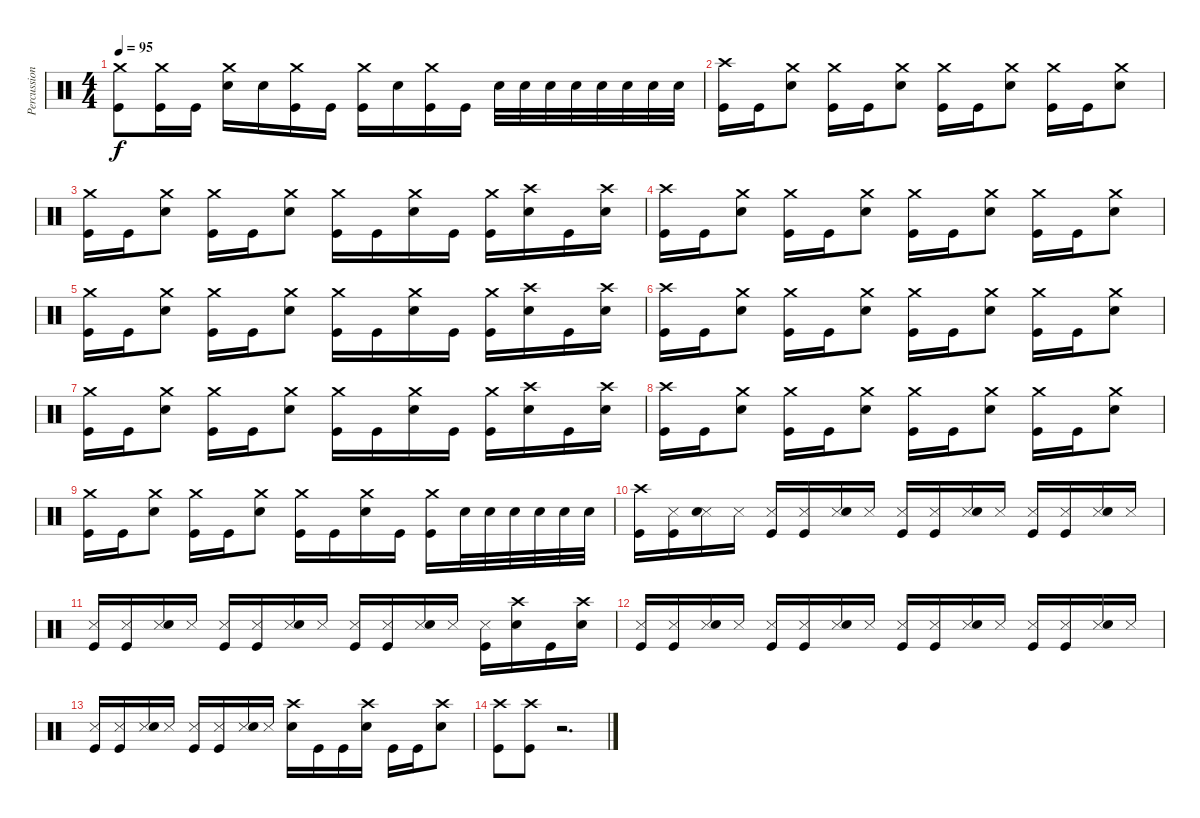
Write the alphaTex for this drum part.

\track ("Percussion" "Percussion") {instrument percussion}
\staff {score}
\articulation defaults
\ts (4 4)
\tempo 95
\clef neutral
\ks c
("Crash medium (hit)" "Kick (hit)").8{dy f} ("Crash medium (hit)" "Kick (hit)").16 "Kick (hit)".16 ("Crash medium (hit)" "Electric Snare (hit)").16 "Electric Snare (hit)".16 ("Crash medium (hit)" "Kick (hit)").16 "Kick (hit)".16 ("Crash medium (hit)" "Kick (hit)").16 "Electric Snare (hit)".16 ("Crash medium (hit)" "Kick (hit)").16 "Kick (hit)".16 "Electric Snare (hit)".32 "Electric Snare (hit)".32 "Electric Snare (hit)".32 "Electric Snare (hit)".32 "Electric Snare (hit)".32 "Electric Snare (hit)".32 "Electric Snare (hit)".32 "Electric Snare (hit)".32 |
("Crash high (hit)" "Kick (hit)").16 "Kick (hit)".16 ("Crash medium (hit)" "Electric Snare (hit)").8 ("Crash medium (hit)" "Kick (hit)").16 "Kick (hit)".16 ("Crash medium (hit)" "Electric Snare (hit)").8 ("Crash medium (hit)" "Kick (hit)").16 "Kick (hit)".16 ("Crash medium (hit)" "Electric Snare (hit)").8 ("Crash medium (hit)" "Kick (hit)").16 "Kick (hit)".16 ("Crash medium (hit)" "Electric Snare (hit)").8 |
("Crash medium (hit)" "Kick (hit)").16 "Kick (hit)".16 ("Crash medium (hit)" "Electric Snare (hit)").8 ("Crash medium (hit)" "Kick (hit)").16 "Kick (hit)".16 ("Crash medium (hit)" "Electric Snare (hit)").8 ("Crash medium (hit)" "Kick (hit)").16 "Kick (hit)".16 ("Crash medium (hit)" "Electric Snare (hit)").16 "Kick (hit)".16 ("Crash medium (hit)" "Kick (hit)").16 ("Crash high (hit)" "Electric Snare (hit)").16 "Kick (hit)".16 ("Crash high (hit)" "Electric Snare (hit)").16 |
("Crash high (hit)" "Kick (hit)").16 "Kick (hit)".16 ("Crash medium (hit)" "Electric Snare (hit)").8 ("Crash medium (hit)" "Kick (hit)").16 "Kick (hit)".16 ("Crash medium (hit)" "Electric Snare (hit)").8 ("Crash medium (hit)" "Kick (hit)").16 "Kick (hit)".16 ("Crash medium (hit)" "Electric Snare (hit)").8 ("Crash medium (hit)" "Kick (hit)").16 "Kick (hit)".16 ("Crash medium (hit)" "Electric Snare (hit)").8 |
("Crash medium (hit)" "Kick (hit)").16 "Kick (hit)".16 ("Crash medium (hit)" "Electric Snare (hit)").8 ("Crash medium (hit)" "Kick (hit)").16 "Kick (hit)".16 ("Crash medium (hit)" "Electric Snare (hit)").8 ("Crash medium (hit)" "Kick (hit)").16 "Kick (hit)".16 ("Crash medium (hit)" "Electric Snare (hit)").16 "Kick (hit)".16 ("Crash medium (hit)" "Kick (hit)").16 ("Crash high (hit)" "Electric Snare (hit)").16 "Kick (hit)".16 ("Crash high (hit)" "Electric Snare (hit)").16 |
("Crash high (hit)" "Kick (hit)").16 "Kick (hit)".16 ("Crash medium (hit)" "Electric Snare (hit)").8 ("Crash medium (hit)" "Kick (hit)").16 "Kick (hit)".16 ("Crash medium (hit)" "Electric Snare (hit)").8 ("Crash medium (hit)" "Kick (hit)").16 "Kick (hit)".16 ("Crash medium (hit)" "Electric Snare (hit)").8 ("Crash medium (hit)" "Kick (hit)").16 "Kick (hit)".16 ("Crash medium (hit)" "Electric Snare (hit)").8 |
("Crash medium (hit)" "Kick (hit)").16 "Kick (hit)".16 ("Crash medium (hit)" "Electric Snare (hit)").8 ("Crash medium (hit)" "Kick (hit)").16 "Kick (hit)".16 ("Crash medium (hit)" "Electric Snare (hit)").8 ("Crash medium (hit)" "Kick (hit)").16 "Kick (hit)".16 ("Crash medium (hit)" "Electric Snare (hit)").16 "Kick (hit)".16 ("Crash medium (hit)" "Kick (hit)").16 ("Crash high (hit)" "Electric Snare (hit)").16 "Kick (hit)".16 ("Crash high (hit)" "Electric Snare (hit)").16 |
("Crash high (hit)" "Kick (hit)").16 "Kick (hit)".16 ("Crash medium (hit)" "Electric Snare (hit)").8 ("Crash medium (hit)" "Kick (hit)").16 "Kick (hit)".16 ("Crash medium (hit)" "Electric Snare (hit)").8 ("Crash medium (hit)" "Kick (hit)").16 "Kick (hit)".16 ("Crash medium (hit)" "Electric Snare (hit)").8 ("Crash medium (hit)" "Kick (hit)").16 "Kick (hit)".16 ("Crash medium (hit)" "Electric Snare (hit)").8 |
("Crash medium (hit)" "Kick (hit)").16 "Kick (hit)".16 ("Crash medium (hit)" "Electric Snare (hit)").8 ("Crash medium (hit)" "Kick (hit)").16 "Kick (hit)".16 ("Crash medium (hit)" "Electric Snare (hit)").8 ("Crash medium (hit)" "Kick (hit)").16 "Kick (hit)".16 ("Crash medium (hit)" "Electric Snare (hit)").16 "Kick (hit)".16 ("Crash medium (hit)" "Kick (hit)").16 "Electric Snare (hit)".32 "Electric Snare (hit)".32 "Electric Snare (hit)".32 "Electric Snare (hit)".32 "Electric Snare (hit)".32 "Electric Snare (hit)".32 |
("Crash high (hit)" "Kick (hit)").16 ("Snare (side stick) 3" "Kick (hit)").16 ("Snare (side stick) 3" "Electric Snare (hit)").16 "Snare (side stick) 3".16 ("Snare (side stick) 3" "Kick (hit)").16 ("Snare (side stick) 3" "Kick (hit)").16 ("Snare (side stick) 3" "Electric Snare (hit)").16 "Snare (side stick) 3".16 ("Snare (side stick) 3" "Kick (hit)").16 ("Snare (side stick) 3" "Kick (hit)").16 ("Snare (side stick) 3" "Electric Snare (hit)").16 "Snare (side stick) 3".16 ("Snare (side stick) 3" "Kick (hit)").16 ("Snare (side stick) 3" "Kick (hit)").16 ("Snare (side stick) 3" "Electric Snare (hit)").16 "Snare (side stick) 3".16 |
("Snare (side stick) 3" "Kick (hit)").16 ("Snare (side stick) 3" "Kick (hit)").16 ("Snare (side stick) 3" "Electric Snare (hit)").16 "Snare (side stick) 3".16 ("Snare (side stick) 3" "Kick (hit)").16 ("Snare (side stick) 3" "Kick (hit)").16 ("Snare (side stick) 3" "Electric Snare (hit)").16 "Snare (side stick) 3".16 ("Snare (side stick) 3" "Kick (hit)").16 ("Snare (side stick) 3" "Kick (hit)").16 ("Snare (side stick) 3" "Electric Snare (hit)").16 "Snare (side stick) 3".16 ("Snare (side stick) 3" "Kick (hit)").16 ("Crash high (hit)" "Electric Snare (hit)").16 "Kick (hit)".16 ("Crash high (hit)" "Electric Snare (hit)").16 |
("Snare (side stick) 3" "Kick (hit)").16 ("Snare (side stick) 3" "Kick (hit)").16 ("Snare (side stick) 3" "Electric Snare (hit)").16 "Snare (side stick) 3".16 ("Snare (side stick) 3" "Kick (hit)").16 ("Snare (side stick) 3" "Kick (hit)").16 ("Snare (side stick) 3" "Electric Snare (hit)").16 "Snare (side stick) 3".16 ("Snare (side stick) 3" "Kick (hit)").16 ("Snare (side stick) 3" "Kick (hit)").16 ("Snare (side stick) 3" "Electric Snare (hit)").16 "Snare (side stick) 3".16 ("Snare (side stick) 3" "Kick (hit)").16 ("Snare (side stick) 3" "Kick (hit)").16 ("Snare (side stick) 3" "Electric Snare (hit)").16 "Snare (side stick) 3".16 |
("Snare (side stick) 3" "Kick (hit)").16 ("Snare (side stick) 3" "Kick (hit)").16 ("Snare (side stick) 3" "Electric Snare (hit)").16 "Snare (side stick) 3".16 ("Snare (side stick) 3" "Kick (hit)").16 ("Snare (side stick) 3" "Kick (hit)").16 ("Snare (side stick) 3" "Electric Snare (hit)").16 "Snare (side stick) 3".16 ("Crash high (hit)" "Electric Snare (hit)").16 "Kick (hit)".16 "Kick (hit)".16 ("Crash high (hit)" "Electric Snare (hit)").16 "Kick (hit)".16 "Kick (hit)".16 ("Crash high (hit)" "Electric Snare (hit)").8 |
("Crash high (hit)" "Kick (hit)").8 ("Crash high (hit)" "Kick (hit)").8 r.2{d}
